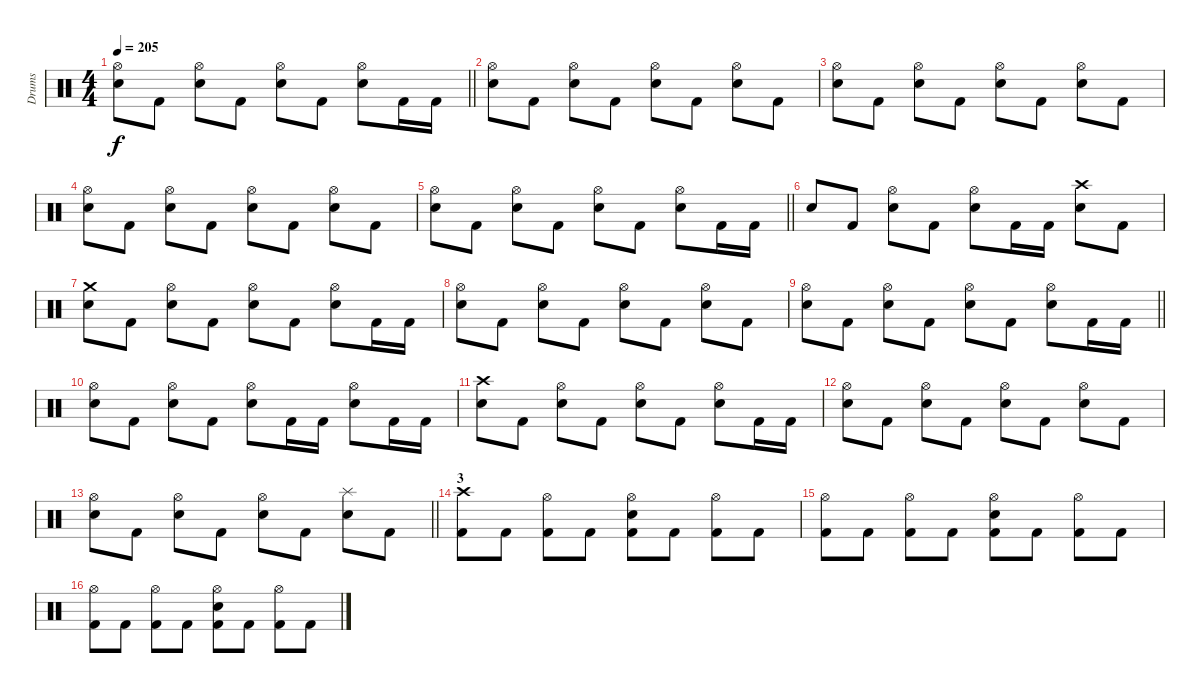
\track ("Drums" "Drums") {instrument percussion}
\staff {score}
\articulation defaults
\ts (4 4)
\tempo 205
\clef neutral
\barLineRight lightlight
\ks c
("Hi-Hat (open)" "Electric Snare (hit)").8{dy f} "Kick (hit) 2".8 ("Hi-Hat (open)" "Electric Snare (hit)").8 "Kick (hit) 2".8 ("Hi-Hat (open)" "Electric Snare (hit)").8 "Kick (hit) 2".8 ("Hi-Hat (open)" "Electric Snare (hit)").8 "Kick (hit) 2".16 "Kick (hit) 2".16 |
("Hi-Hat (open)" "Electric Snare (hit)").8 "Kick (hit) 2".8 ("Hi-Hat (open)" "Electric Snare (hit)").8 "Kick (hit) 2".8 ("Hi-Hat (open)" "Electric Snare (hit)").8 "Kick (hit) 2".8 ("Hi-Hat (open)" "Electric Snare (hit)").8 "Kick (hit) 2".8 |
("Hi-Hat (open)" "Electric Snare (hit)").8 "Kick (hit) 2".8 ("Hi-Hat (open)" "Electric Snare (hit)").8 "Kick (hit) 2".8 ("Hi-Hat (open)" "Electric Snare (hit)").8 "Kick (hit) 2".8 ("Hi-Hat (open)" "Electric Snare (hit)").8 "Kick (hit) 2".8 |
("Hi-Hat (open)" "Electric Snare (hit)").8 "Kick (hit) 2".8 ("Hi-Hat (open)" "Electric Snare (hit)").8 "Kick (hit) 2".8 ("Hi-Hat (open)" "Electric Snare (hit)").8 "Kick (hit) 2".8 ("Hi-Hat (open)" "Electric Snare (hit)").8 "Kick (hit) 2".8 |
\barLineRight lightlight
("Hi-Hat (open)" "Electric Snare (hit)").8 "Kick (hit) 2".8 ("Hi-Hat (open)" "Electric Snare (hit)").8 "Kick (hit) 2".8 ("Hi-Hat (open)" "Electric Snare (hit)").8 "Kick (hit) 2".8 ("Hi-Hat (open)" "Electric Snare (hit)").8 "Kick (hit) 2".16 "Kick (hit) 2".16 |
"Electric Snare (hit)".8 "Kick (hit) 2".8 ("Hi-Hat (open)" "Electric Snare (hit)").8 "Kick (hit) 2".8 ("Hi-Hat (open)" "Electric Snare (hit)").8 "Kick (hit) 2".16 "Kick (hit) 2".16 ("Crash high (hit)" "Electric Snare (hit)").8 "Kick (hit) 2".8 |
("Crash medium (hit)" "Electric Snare (hit)").8 "Kick (hit) 2".8 ("Hi-Hat (open)" "Electric Snare (hit)").8 "Kick (hit) 2".8 ("Hi-Hat (open)" "Electric Snare (hit)").8 "Kick (hit) 2".8 ("Hi-Hat (open)" "Electric Snare (hit)").8 "Kick (hit) 2".16 "Kick (hit) 2".16 |
("Hi-Hat (open)" "Electric Snare (hit)").8 "Kick (hit) 2".8 ("Hi-Hat (open)" "Electric Snare (hit)").8 "Kick (hit) 2".8 ("Hi-Hat (open)" "Electric Snare (hit)").8 "Kick (hit) 2".8 ("Hi-Hat (open)" "Electric Snare (hit)").8 "Kick (hit) 2".8 |
\barLineRight lightlight
("Hi-Hat (open)" "Electric Snare (hit)").8 "Kick (hit) 2".8 ("Hi-Hat (open)" "Electric Snare (hit)").8 "Kick (hit) 2".8 ("Hi-Hat (open)" "Electric Snare (hit)").8 "Kick (hit) 2".8 ("Hi-Hat (open)" "Electric Snare (hit)").8 "Kick (hit) 2".16 "Kick (hit) 2".16 |
("Hi-Hat (open)" "Electric Snare (hit)").8 "Kick (hit) 2".8 ("Hi-Hat (open)" "Electric Snare (hit)").8 "Kick (hit) 2".8 ("Hi-Hat (open)" "Electric Snare (hit)").8 "Kick (hit) 2".16 "Kick (hit) 2".16 ("Hi-Hat (open)" "Electric Snare (hit)").8 "Kick (hit) 2".16 "Kick (hit) 2".16 |
("Crash high (hit)" "Electric Snare (hit)").8 "Kick (hit) 2".8 ("Hi-Hat (open)" "Electric Snare (hit)").8 "Kick (hit) 2".8 ("Hi-Hat (open)" "Electric Snare (hit)").8 "Kick (hit) 2".8 ("Hi-Hat (open)" "Electric Snare (hit)").8 "Kick (hit) 2".16 "Kick (hit) 2".16 |
("Hi-Hat (open)" "Electric Snare (hit)").8 "Kick (hit) 2".8 ("Hi-Hat (open)" "Electric Snare (hit)").8 "Kick (hit) 2".8 ("Hi-Hat (open)" "Electric Snare (hit)").8 "Kick (hit) 2".8 ("Hi-Hat (open)" "Electric Snare (hit)").8 "Kick (hit) 2".8 |
\barLineRight lightlight
("Hi-Hat (open)" "Electric Snare (hit)").8 "Kick (hit) 2".8 ("Hi-Hat (open)" "Electric Snare (hit)").8 "Kick (hit) 2".8 ("Hi-Hat (open)" "Electric Snare (hit)").8 "Kick (hit) 2".8 ("Splash (hit)" "Electric Snare (hit)").8 "Kick (hit) 2".8 |
\section ("" "3")
("Crash high (hit)" "Kick (hit) 2").8 "Kick (hit) 2".8 ("Hi-Hat (open)" "Kick (hit) 2").8 "Kick (hit) 2".8 ("Hi-Hat (open)" "Electric Snare (hit)" "Kick (hit) 2").8 "Kick (hit) 2".8 ("Hi-Hat (open)" "Kick (hit) 2").8 "Kick (hit) 2".8 |
("Hi-Hat (open)" "Kick (hit) 2").8 "Kick (hit) 2".8 ("Hi-Hat (open)" "Kick (hit) 2").8 "Kick (hit) 2".8 ("Hi-Hat (open)" "Electric Snare (hit)" "Kick (hit) 2").8 "Kick (hit) 2".8 ("Hi-Hat (open)" "Kick (hit) 2").8 "Kick (hit) 2".8 |
("Hi-Hat (open)" "Kick (hit) 2").8 "Kick (hit) 2".8 ("Hi-Hat (open)" "Kick (hit) 2").8 "Kick (hit) 2".8 ("Hi-Hat (open)" "Electric Snare (hit)" "Kick (hit) 2").8 "Kick (hit) 2".8 ("Hi-Hat (open)" "Kick (hit) 2").8 "Kick (hit) 2".8
